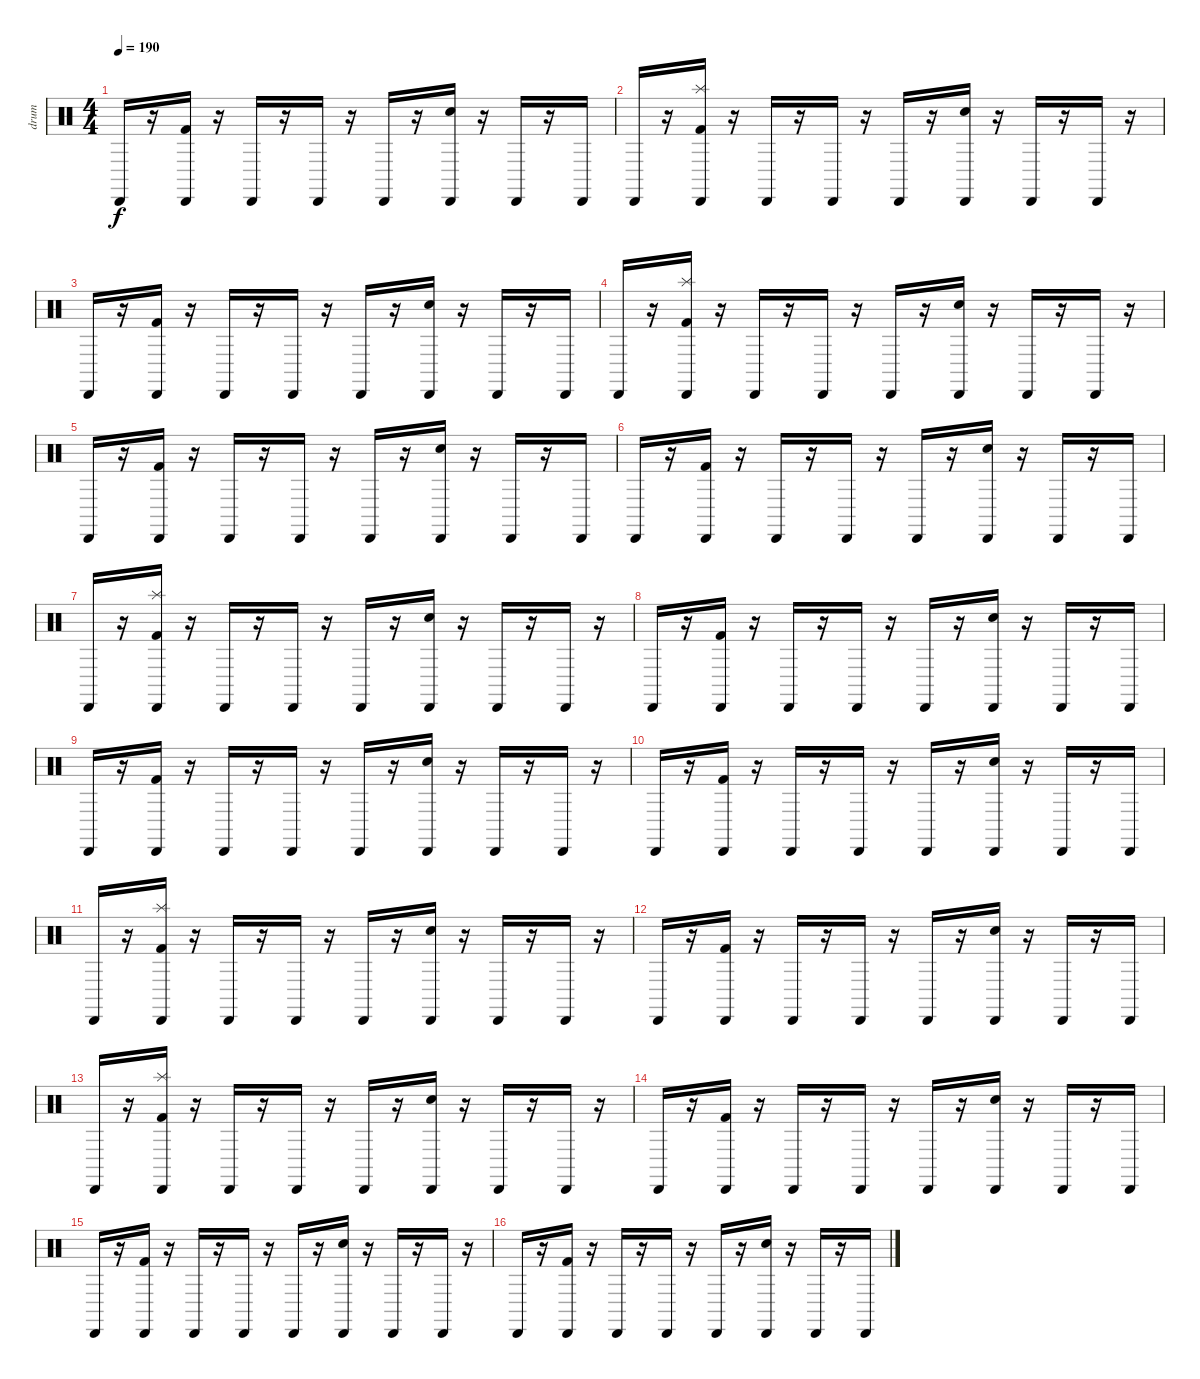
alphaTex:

\track ("drum" "drum") {instrument percussion}
\staff {score}
\articulation defaults
\ts (4 4)
\tempo 190
\clef neutral
\ks c "Cabasa (hit)".16{dy f}
r.16 ("Cabasa (hit)" "Kick (hit) 2").16 r.16 "Cabasa (hit)".16 r.16 "Cabasa (hit)".16 r.16 "Cabasa (hit)".16 r.16 ("Cabasa (hit)" "Snare (hit) 2").16 r.16 "Cabasa (hit)".16 r.16 "Cabasa (hit)".16 |
"Cabasa (hit)".16 r.16 ("Cabasa (hit)" "Kick (hit) 2" "Splash (hit)").16 r.16 "Cabasa (hit)".16 r.16 "Cabasa (hit)".16 r.16 "Cabasa (hit)".16 r.16 ("Cabasa (hit)" "Snare (hit) 2").16 r.16 "Cabasa (hit)".16 r.16 "Cabasa (hit)".16 r.16 |
"Cabasa (hit)".16 r.16 ("Cabasa (hit)" "Kick (hit) 2").16 r.16 "Cabasa (hit)".16 r.16 "Cabasa (hit)".16 r.16 "Cabasa (hit)".16 r.16 ("Cabasa (hit)" "Snare (hit) 2").16 r.16 "Cabasa (hit)".16 r.16 "Cabasa (hit)".16 |
"Cabasa (hit)".16 r.16 ("Cabasa (hit)" "Kick (hit) 2" "Splash (hit)").16 r.16 "Cabasa (hit)".16 r.16 "Cabasa (hit)".16 r.16 "Cabasa (hit)".16 r.16 ("Cabasa (hit)" "Snare (hit) 2").16 r.16 "Cabasa (hit)".16 r.16 "Cabasa (hit)".16 r.16 |
"Cabasa (hit)".16 r.16 ("Cabasa (hit)" "Kick (hit) 2").16 r.16 "Cabasa (hit)".16 r.16 "Cabasa (hit)".16 r.16 "Cabasa (hit)".16 r.16 ("Cabasa (hit)" "Snare (hit) 2").16 r.16 "Cabasa (hit)".16 r.16 "Cabasa (hit)".16 |
"Cabasa (hit)".16 r.16 ("Cabasa (hit)" "Kick (hit) 2").16 r.16 "Cabasa (hit)".16 r.16 "Cabasa (hit)".16 r.16 "Cabasa (hit)".16 r.16 ("Cabasa (hit)" "Snare (hit) 2").16 r.16 "Cabasa (hit)".16 r.16 "Cabasa (hit)".16 |
"Cabasa (hit)".16 r.16 ("Cabasa (hit)" "Kick (hit) 2" "Splash (hit)").16 r.16 "Cabasa (hit)".16 r.16 "Cabasa (hit)".16 r.16 "Cabasa (hit)".16 r.16 ("Cabasa (hit)" "Snare (hit) 2").16 r.16 "Cabasa (hit)".16 r.16 "Cabasa (hit)".16 r.16 |
"Cabasa (hit)".16 r.16 ("Cabasa (hit)" "Kick (hit) 2").16 r.16 "Cabasa (hit)".16 r.16 "Cabasa (hit)".16 r.16 "Cabasa (hit)".16 r.16 ("Cabasa (hit)" "Snare (hit) 2").16 r.16 "Cabasa (hit)".16 r.16 "Cabasa (hit)".16 |
"Cabasa (hit)".16 r.16 ("Cabasa (hit)" "Kick (hit) 2").16 r.16 "Cabasa (hit)".16 r.16 "Cabasa (hit)".16 r.16 "Cabasa (hit)".16 r.16 ("Cabasa (hit)" "Snare (hit) 2").16 r.16 "Cabasa (hit)".16 r.16 "Cabasa (hit)".16 r.16 |
"Cabasa (hit)".16 r.16 ("Cabasa (hit)" "Kick (hit) 2").16 r.16 "Cabasa (hit)".16 r.16 "Cabasa (hit)".16 r.16 "Cabasa (hit)".16 r.16 ("Cabasa (hit)" "Snare (hit) 2").16 r.16 "Cabasa (hit)".16 r.16 "Cabasa (hit)".16 |
"Cabasa (hit)".16 r.16 ("Cabasa (hit)" "Kick (hit) 2" "Splash (hit)").16 r.16 "Cabasa (hit)".16 r.16 "Cabasa (hit)".16 r.16 "Cabasa (hit)".16 r.16 ("Cabasa (hit)" "Snare (hit) 2").16 r.16 "Cabasa (hit)".16 r.16 "Cabasa (hit)".16 r.16 |
"Cabasa (hit)".16 r.16 ("Cabasa (hit)" "Kick (hit) 2").16 r.16 "Cabasa (hit)".16 r.16 "Cabasa (hit)".16 r.16 "Cabasa (hit)".16 r.16 ("Cabasa (hit)" "Snare (hit) 2").16 r.16 "Cabasa (hit)".16 r.16 "Cabasa (hit)".16 |
"Cabasa (hit)".16 r.16 ("Cabasa (hit)" "Kick (hit) 2" "Splash (hit)").16 r.16 "Cabasa (hit)".16 r.16 "Cabasa (hit)".16 r.16 "Cabasa (hit)".16 r.16 ("Cabasa (hit)" "Snare (hit) 2").16 r.16 "Cabasa (hit)".16 r.16 "Cabasa (hit)".16 r.16 |
"Cabasa (hit)".16 r.16 ("Cabasa (hit)" "Kick (hit) 2").16 r.16 "Cabasa (hit)".16 r.16 "Cabasa (hit)".16 r.16 "Cabasa (hit)".16 r.16 ("Cabasa (hit)" "Snare (hit) 2").16 r.16 "Cabasa (hit)".16 r.16 "Cabasa (hit)".16 |
"Cabasa (hit)".16 r.16 ("Cabasa (hit)" "Kick (hit) 2").16 r.16 "Cabasa (hit)".16 r.16 "Cabasa (hit)".16 r.16 "Cabasa (hit)".16 r.16 ("Cabasa (hit)" "Snare (hit) 2").16 r.16 "Cabasa (hit)".16 r.16 "Cabasa (hit)".16 r.16 |
"Cabasa (hit)".16 r.16 ("Cabasa (hit)" "Kick (hit) 2").16 r.16 "Cabasa (hit)".16 r.16 "Cabasa (hit)".16 r.16 "Cabasa (hit)".16 r.16 ("Cabasa (hit)" "Snare (hit) 2").16 r.16 "Cabasa (hit)".16 r.16 "Cabasa (hit)".16
